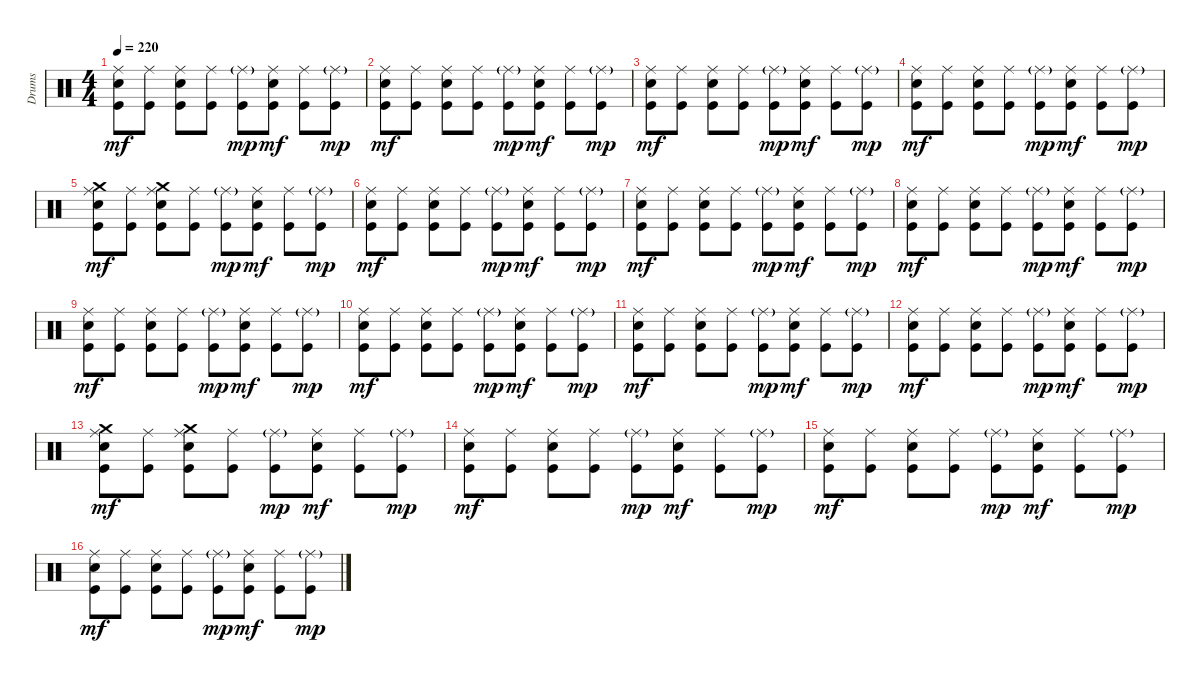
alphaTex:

\track ("Drums" "Drums") {instrument percussion}
\staff {score}
\articulation defaults
\ts (4 4)
\tempo 220
\clef neutral
\ks c
("Ride (middle)" "Electric Snare (hit)" "Kick (hit)").8{dy mf} ("Ride (middle)" "Kick (hit)").8 ("Ride (middle)" "Electric Snare (hit)" "Kick (hit)").8 ("Ride (middle)" "Kick (hit)").8 ("Ride (middle)"{g} "Kick (hit)").8{dy mp} ("Ride (middle)" "Electric Snare (hit)" "Kick (hit)").8{dy mf} ("Ride (middle)" "Kick (hit)").8 ("Ride (middle)"{g} "Kick (hit)").8{dy mp} |
("Ride (middle)" "Electric Snare (hit)" "Kick (hit)").8{dy mf} ("Ride (middle)" "Kick (hit)").8 ("Ride (middle)" "Electric Snare (hit)" "Kick (hit)").8 ("Ride (middle)" "Kick (hit)").8 ("Ride (middle)"{g} "Kick (hit)").8{dy mp} ("Ride (middle)" "Electric Snare (hit)" "Kick (hit)").8{dy mf} ("Ride (middle)" "Kick (hit)").8 ("Ride (middle)"{g} "Kick (hit)").8{dy mp} |
("Ride (middle)" "Electric Snare (hit)" "Kick (hit)").8{dy mf} ("Ride (middle)" "Kick (hit)").8 ("Ride (middle)" "Electric Snare (hit)" "Kick (hit)").8 ("Ride (middle)" "Kick (hit)").8 ("Ride (middle)"{g} "Kick (hit)").8{dy mp} ("Ride (middle)" "Electric Snare (hit)" "Kick (hit)").8{dy mf} ("Ride (middle)" "Kick (hit)").8 ("Ride (middle)"{g} "Kick (hit)").8{dy mp} |
("Ride (middle)" "Electric Snare (hit)" "Kick (hit)").8{dy mf} ("Ride (middle)" "Kick (hit)").8 ("Ride (middle)" "Electric Snare (hit)" "Kick (hit)").8 ("Ride (middle)" "Kick (hit)").8 ("Ride (middle)"{g} "Kick (hit)").8{dy mp} ("Ride (middle)" "Electric Snare (hit)" "Kick (hit)").8{dy mf} ("Ride (middle)" "Kick (hit)").8 ("Ride (middle)"{g} "Kick (hit)").8{dy mp} |
("Crash medium (hit)" "Ride (middle)" "Electric Snare (hit)" "Kick (hit)").8{dy mf} ("Ride (middle)" "Kick (hit)").8 ("Crash medium (hit)" "Ride (middle)" "Electric Snare (hit)" "Kick (hit)").8 ("Ride (middle)" "Kick (hit)").8 ("Ride (middle)"{g} "Kick (hit)").8{dy mp} ("Ride (middle)" "Electric Snare (hit)" "Kick (hit)").8{dy mf} ("Ride (middle)" "Kick (hit)").8 ("Ride (middle)"{g} "Kick (hit)").8{dy mp} |
("Ride (middle)" "Electric Snare (hit)" "Kick (hit)").8{dy mf} ("Ride (middle)" "Kick (hit)").8 ("Ride (middle)" "Electric Snare (hit)" "Kick (hit)").8 ("Ride (middle)" "Kick (hit)").8 ("Ride (middle)"{g} "Kick (hit)").8{dy mp} ("Ride (middle)" "Electric Snare (hit)" "Kick (hit)").8{dy mf} ("Ride (middle)" "Kick (hit)").8 ("Ride (middle)"{g} "Kick (hit)").8{dy mp} |
("Ride (middle)" "Electric Snare (hit)" "Kick (hit)").8{dy mf} ("Ride (middle)" "Kick (hit)").8 ("Ride (middle)" "Electric Snare (hit)" "Kick (hit)").8 ("Ride (middle)" "Kick (hit)").8 ("Ride (middle)"{g} "Kick (hit)").8{dy mp} ("Ride (middle)" "Electric Snare (hit)" "Kick (hit)").8{dy mf} ("Ride (middle)" "Kick (hit)").8 ("Ride (middle)"{g} "Kick (hit)").8{dy mp} |
("Ride (middle)" "Electric Snare (hit)" "Kick (hit)").8{dy mf} ("Ride (middle)" "Kick (hit)").8 ("Ride (middle)" "Electric Snare (hit)" "Kick (hit)").8 ("Ride (middle)" "Kick (hit)").8 ("Ride (middle)"{g} "Kick (hit)").8{dy mp} ("Ride (middle)" "Electric Snare (hit)" "Kick (hit)").8{dy mf} ("Ride (middle)" "Kick (hit)").8 ("Ride (middle)"{g} "Kick (hit)").8{dy mp} |
("Ride (middle)" "Electric Snare (hit)" "Kick (hit)").8{dy mf} ("Ride (middle)" "Kick (hit)").8 ("Ride (middle)" "Electric Snare (hit)" "Kick (hit)").8 ("Ride (middle)" "Kick (hit)").8 ("Ride (middle)"{g} "Kick (hit)").8{dy mp} ("Ride (middle)" "Electric Snare (hit)" "Kick (hit)").8{dy mf} ("Ride (middle)" "Kick (hit)").8 ("Ride (middle)"{g} "Kick (hit)").8{dy mp} |
("Ride (middle)" "Electric Snare (hit)" "Kick (hit)").8{dy mf} ("Ride (middle)" "Kick (hit)").8 ("Ride (middle)" "Electric Snare (hit)" "Kick (hit)").8 ("Ride (middle)" "Kick (hit)").8 ("Ride (middle)"{g} "Kick (hit)").8{dy mp} ("Ride (middle)" "Electric Snare (hit)" "Kick (hit)").8{dy mf} ("Ride (middle)" "Kick (hit)").8 ("Ride (middle)"{g} "Kick (hit)").8{dy mp} |
("Ride (middle)" "Electric Snare (hit)" "Kick (hit)").8{dy mf} ("Ride (middle)" "Kick (hit)").8 ("Ride (middle)" "Electric Snare (hit)" "Kick (hit)").8 ("Ride (middle)" "Kick (hit)").8 ("Ride (middle)"{g} "Kick (hit)").8{dy mp} ("Ride (middle)" "Electric Snare (hit)" "Kick (hit)").8{dy mf} ("Ride (middle)" "Kick (hit)").8 ("Ride (middle)"{g} "Kick (hit)").8{dy mp} |
("Ride (middle)" "Electric Snare (hit)" "Kick (hit)").8{dy mf} ("Ride (middle)" "Kick (hit)").8 ("Ride (middle)" "Electric Snare (hit)" "Kick (hit)").8 ("Ride (middle)" "Kick (hit)").8 ("Ride (middle)"{g} "Kick (hit)").8{dy mp} ("Ride (middle)" "Electric Snare (hit)" "Kick (hit)").8{dy mf} ("Ride (middle)" "Kick (hit)").8 ("Ride (middle)"{g} "Kick (hit)").8{dy mp} |
("Crash medium (hit)" "Ride (middle)" "Electric Snare (hit)" "Kick (hit)").8{dy mf} ("Ride (middle)" "Kick (hit)").8 ("Crash medium (hit)" "Ride (middle)" "Electric Snare (hit)" "Kick (hit)").8 ("Ride (middle)" "Kick (hit)").8 ("Ride (middle)"{g} "Kick (hit)").8{dy mp} ("Ride (middle)" "Electric Snare (hit)" "Kick (hit)").8{dy mf} ("Ride (middle)" "Kick (hit)").8 ("Ride (middle)"{g} "Kick (hit)").8{dy mp} |
("Ride (middle)" "Electric Snare (hit)" "Kick (hit)").8{dy mf} ("Ride (middle)" "Kick (hit)").8 ("Ride (middle)" "Electric Snare (hit)" "Kick (hit)").8 ("Ride (middle)" "Kick (hit)").8 ("Ride (middle)"{g} "Kick (hit)").8{dy mp} ("Ride (middle)" "Electric Snare (hit)" "Kick (hit)").8{dy mf} ("Ride (middle)" "Kick (hit)").8 ("Ride (middle)"{g} "Kick (hit)").8{dy mp} |
("Ride (middle)" "Electric Snare (hit)" "Kick (hit)").8{dy mf} ("Ride (middle)" "Kick (hit)").8 ("Ride (middle)" "Electric Snare (hit)" "Kick (hit)").8 ("Ride (middle)" "Kick (hit)").8 ("Ride (middle)"{g} "Kick (hit)").8{dy mp} ("Ride (middle)" "Electric Snare (hit)" "Kick (hit)").8{dy mf} ("Ride (middle)" "Kick (hit)").8 ("Ride (middle)"{g} "Kick (hit)").8{dy mp} |
("Ride (middle)" "Electric Snare (hit)" "Kick (hit)").8{dy mf} ("Ride (middle)" "Kick (hit)").8 ("Ride (middle)" "Electric Snare (hit)" "Kick (hit)").8 ("Ride (middle)" "Kick (hit)").8 ("Ride (middle)"{g} "Kick (hit)").8{dy mp} ("Ride (middle)" "Electric Snare (hit)" "Kick (hit)").8{dy mf} ("Ride (middle)" "Kick (hit)").8 ("Ride (middle)"{g} "Kick (hit)").8{dy mp}
